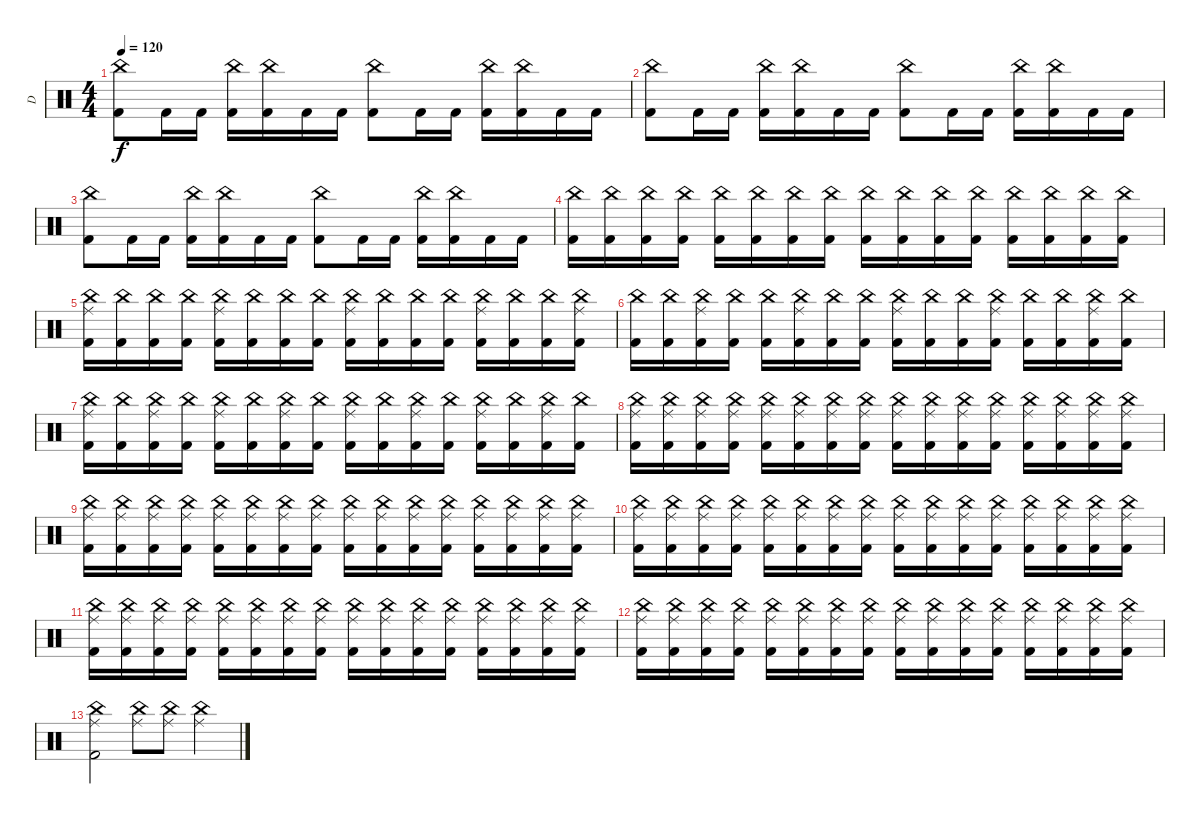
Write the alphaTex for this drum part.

\track ("D" "D") {instrument percussion}
\staff {score}
\articulation defaults
\ts (4 4)
\tempo 120
\clef neutral
\ks c
("China (hit)" "Kick (hit) 2").8{dy f} "Kick (hit) 2".16 "Kick (hit) 2".16 ("China (hit)" "Kick (hit) 2").16 ("China (hit)" "Kick (hit) 2").16 "Kick (hit) 2".16 "Kick (hit) 2".16 ("China (hit)" "Kick (hit) 2").8 "Kick (hit) 2".16 "Kick (hit) 2".16 ("China (hit)" "Kick (hit) 2").16 ("China (hit)" "Kick (hit) 2").16 "Kick (hit) 2".16 "Kick (hit) 2".16 |
("China (hit)" "Kick (hit) 2").8 "Kick (hit) 2".16 "Kick (hit) 2".16 ("China (hit)" "Kick (hit) 2").16 ("China (hit)" "Kick (hit) 2").16 "Kick (hit) 2".16 "Kick (hit) 2".16 ("China (hit)" "Kick (hit) 2").8 "Kick (hit) 2".16 "Kick (hit) 2".16 ("China (hit)" "Kick (hit) 2").16 ("China (hit)" "Kick (hit) 2").16 "Kick (hit) 2".16 "Kick (hit) 2".16 |
("China (hit)" "Kick (hit) 2").8 "Kick (hit) 2".16 "Kick (hit) 2".16 ("China (hit)" "Kick (hit) 2").16 ("China (hit)" "Kick (hit) 2").16 "Kick (hit) 2".16 "Kick (hit) 2".16 ("China (hit)" "Kick (hit) 2").8 "Kick (hit) 2".16 "Kick (hit) 2".16 ("China (hit)" "Kick (hit) 2").16 ("China (hit)" "Kick (hit) 2").16 "Kick (hit) 2".16 "Kick (hit) 2".16 |
("China (hit)" "Kick (hit) 2").16 ("China (hit)" "Kick (hit) 2").16 ("China (hit)" "Kick (hit) 2").16 ("China (hit)" "Kick (hit) 2").16 ("China (hit)" "Kick (hit) 2").16 ("China (hit)" "Kick (hit) 2").16 ("China (hit)" "Kick (hit) 2").16 ("China (hit)" "Kick (hit) 2").16 ("China (hit)" "Kick (hit) 2").16 ("China (hit)" "Kick (hit) 2").16 ("China (hit)" "Kick (hit) 2").16 ("China (hit)" "Kick (hit) 2").16 ("China (hit)" "Kick (hit) 2").16 ("China (hit)" "Kick (hit) 2").16 ("China (hit)" "Kick (hit) 2").16 ("China (hit)" "Kick (hit) 2").16 |
("China (hit)" "Kick (hit) 2" "Ride (middle)").16 ("China (hit)" "Kick (hit) 2").16 ("China (hit)" "Kick (hit) 2").16 ("China (hit)" "Kick (hit) 2").16 ("China (hit)" "Kick (hit) 2" "Ride (middle)").16 ("China (hit)" "Kick (hit) 2").16 ("China (hit)" "Kick (hit) 2").16 ("China (hit)" "Kick (hit) 2").16 ("China (hit)" "Kick (hit) 2" "Ride (middle)").16 ("China (hit)" "Kick (hit) 2").16 ("China (hit)" "Kick (hit) 2").16 ("China (hit)" "Kick (hit) 2").16 ("China (hit)" "Kick (hit) 2" "Ride (middle)").16 ("China (hit)" "Kick (hit) 2").16 ("China (hit)" "Kick (hit) 2").16 ("China (hit)" "Kick (hit) 2" "Ride (middle)").16 |
("China (hit)" "Kick (hit) 2").16 ("China (hit)" "Kick (hit) 2").16 ("China (hit)" "Kick (hit) 2" "Ride (middle)").16 ("China (hit)" "Kick (hit) 2").16 ("China (hit)" "Kick (hit) 2").16 ("China (hit)" "Kick (hit) 2" "Ride (middle)").16 ("China (hit)" "Kick (hit) 2").16 ("China (hit)" "Kick (hit) 2").16 ("China (hit)" "Kick (hit) 2" "Ride (middle)").16 ("China (hit)" "Kick (hit) 2").16 ("China (hit)" "Kick (hit) 2").16 ("China (hit)" "Kick (hit) 2" "Ride (middle)").16 ("China (hit)" "Kick (hit) 2").16 ("China (hit)" "Kick (hit) 2").16 ("China (hit)" "Kick (hit) 2" "Ride (middle)").16 ("China (hit)" "Kick (hit) 2").16 |
("China (hit)" "Kick (hit) 2" "Ride (middle)").16 ("China (hit)" "Kick (hit) 2").16 ("China (hit)" "Kick (hit) 2" "Ride (middle)").16 ("China (hit)" "Kick (hit) 2").16 ("China (hit)" "Kick (hit) 2" "Ride (middle)").16 ("China (hit)" "Kick (hit) 2").16 ("China (hit)" "Kick (hit) 2" "Ride (middle)").16 ("China (hit)" "Kick (hit) 2").16 ("China (hit)" "Kick (hit) 2" "Ride (middle)").16 ("China (hit)" "Kick (hit) 2").16 ("China (hit)" "Kick (hit) 2" "Ride (middle)").16 ("China (hit)" "Kick (hit) 2").16 ("China (hit)" "Kick (hit) 2" "Ride (middle)").16 ("China (hit)" "Kick (hit) 2").16 ("China (hit)" "Kick (hit) 2" "Ride (middle)").16 ("China (hit)" "Kick (hit) 2").16 |
("China (hit)" "Kick (hit) 2" "Ride (middle)").16 ("China (hit)" "Kick (hit) 2" "Ride (middle)").16 ("China (hit)" "Kick (hit) 2" "Ride (middle)").16 ("China (hit)" "Kick (hit) 2" "Ride (middle)").16 ("China (hit)" "Kick (hit) 2" "Ride (middle)").16 ("China (hit)" "Kick (hit) 2" "Ride (middle)").16 ("China (hit)" "Kick (hit) 2" "Ride (middle)").16 ("China (hit)" "Kick (hit) 2" "Ride (middle)").16 ("China (hit)" "Kick (hit) 2" "Ride (middle)").16 ("China (hit)" "Kick (hit) 2" "Ride (middle)").16 ("China (hit)" "Kick (hit) 2" "Ride (middle)").16 ("China (hit)" "Kick (hit) 2" "Ride (middle)").16 ("China (hit)" "Kick (hit) 2" "Ride (middle)").16 ("China (hit)" "Kick (hit) 2" "Ride (middle)").16 ("China (hit)" "Kick (hit) 2" "Ride (middle)").16 ("China (hit)" "Kick (hit) 2" "Ride (middle)").16 |
("China (hit)" "Kick (hit) 2" "Ride (middle)").16 ("China (hit)" "Kick (hit) 2" "Ride (middle)").16 ("China (hit)" "Kick (hit) 2" "Ride (middle)").16 ("China (hit)" "Kick (hit) 2" "Ride (middle)").16 ("China (hit)" "Kick (hit) 2" "Ride (middle)").16 ("China (hit)" "Kick (hit) 2" "Ride (middle)").16 ("China (hit)" "Kick (hit) 2" "Ride (middle)").16 ("China (hit)" "Kick (hit) 2" "Ride (middle)").16 ("China (hit)" "Kick (hit) 2" "Ride (middle)").16 ("China (hit)" "Kick (hit) 2" "Ride (middle)").16 ("China (hit)" "Kick (hit) 2" "Ride (middle)").16 ("China (hit)" "Kick (hit) 2" "Ride (middle)").16 ("China (hit)" "Kick (hit) 2" "Ride (middle)").16 ("China (hit)" "Kick (hit) 2" "Ride (middle)").16 ("China (hit)" "Kick (hit) 2" "Ride (middle)").16 ("China (hit)" "Kick (hit) 2" "Ride (middle)").16 |
("China (hit)" "Kick (hit) 2" "Ride (middle)").16 ("China (hit)" "Kick (hit) 2" "Ride (middle)").16 ("China (hit)" "Kick (hit) 2" "Ride (middle)").16 ("China (hit)" "Kick (hit) 2" "Ride (middle)").16 ("China (hit)" "Kick (hit) 2" "Ride (middle)").16 ("China (hit)" "Kick (hit) 2" "Ride (middle)").16 ("China (hit)" "Kick (hit) 2" "Ride (middle)").16 ("China (hit)" "Kick (hit) 2" "Ride (middle)").16 ("China (hit)" "Kick (hit) 2" "Ride (middle)").16 ("China (hit)" "Kick (hit) 2" "Ride (middle)").16 ("China (hit)" "Kick (hit) 2" "Ride (middle)").16 ("China (hit)" "Kick (hit) 2" "Ride (middle)").16 ("China (hit)" "Kick (hit) 2" "Ride (middle)").16 ("China (hit)" "Kick (hit) 2" "Ride (middle)").16 ("China (hit)" "Kick (hit) 2" "Ride (middle)").16 ("China (hit)" "Kick (hit) 2" "Ride (middle)").16 |
("China (hit)" "Kick (hit) 2" "Ride (middle)").16 ("China (hit)" "Kick (hit) 2" "Ride (middle)").16 ("China (hit)" "Kick (hit) 2" "Ride (middle)").16 ("China (hit)" "Kick (hit) 2" "Ride (middle)").16 ("China (hit)" "Kick (hit) 2" "Ride (middle)").16 ("China (hit)" "Kick (hit) 2" "Ride (middle)").16 ("China (hit)" "Kick (hit) 2" "Ride (middle)").16 ("China (hit)" "Kick (hit) 2" "Ride (middle)").16 ("China (hit)" "Kick (hit) 2" "Ride (middle)").16 ("China (hit)" "Kick (hit) 2" "Ride (middle)").16 ("China (hit)" "Kick (hit) 2" "Ride (middle)").16 ("China (hit)" "Kick (hit) 2" "Ride (middle)").16 ("China (hit)" "Kick (hit) 2" "Ride (middle)").16 ("China (hit)" "Kick (hit) 2" "Ride (middle)").16 ("China (hit)" "Kick (hit) 2" "Ride (middle)").16 ("China (hit)" "Kick (hit) 2" "Ride (middle)").16 |
("China (hit)" "Kick (hit) 2" "Ride (middle)").16 ("China (hit)" "Kick (hit) 2" "Ride (middle)").16 ("China (hit)" "Kick (hit) 2" "Ride (middle)").16 ("China (hit)" "Kick (hit) 2" "Ride (middle)").16 ("China (hit)" "Kick (hit) 2" "Ride (middle)").16 ("China (hit)" "Kick (hit) 2" "Ride (middle)").16 ("China (hit)" "Kick (hit) 2" "Ride (middle)").16 ("China (hit)" "Kick (hit) 2" "Ride (middle)").16 ("China (hit)" "Kick (hit) 2" "Ride (middle)").16 ("China (hit)" "Kick (hit) 2" "Ride (middle)").16 ("China (hit)" "Kick (hit) 2" "Ride (middle)").16 ("China (hit)" "Kick (hit) 2" "Ride (middle)").16 ("China (hit)" "Kick (hit) 2" "Ride (middle)").16 ("China (hit)" "Kick (hit) 2" "Ride (middle)").16 ("China (hit)" "Kick (hit) 2" "Ride (middle)").16 ("China (hit)" "Kick (hit) 2" "Ride (middle)").16 |
("China (hit)" "Kick (hit) 2" "Ride (middle)").2 ("China (hit)" "Ride (middle)").8 ("China (hit)" "Ride (middle)").8 ("China (hit)" "Ride (middle)").4
